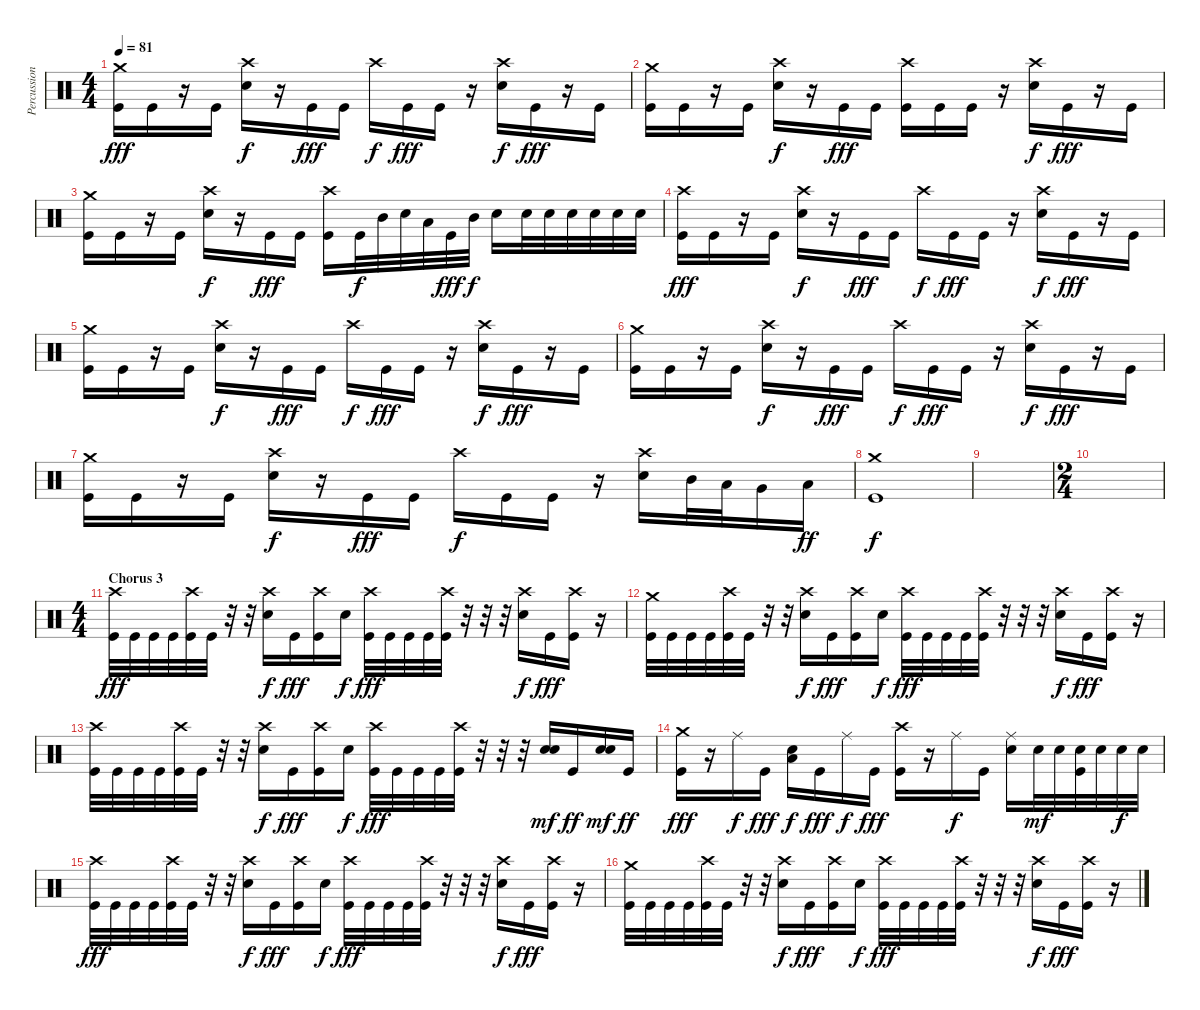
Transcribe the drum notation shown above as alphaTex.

\track ("Percussion" "Percussion") {instrument percussion}
\staff {score}
\articulation defaults
\ts (4 4)
\tempo 81
\clef neutral
\ks c
("Crash medium (hit)" "Kick (hit)").16{dy fff} "Kick (hit)".16 r.16 "Kick (hit)".16 ("Crash high (hit)" "Electric Snare (hit)").16{dy f} r.16 "Kick (hit)".16{dy fff} "Kick (hit)".16 "Crash high (hit)".16{dy f} "Kick (hit)".16{dy fff} "Kick (hit)".16 r.16 ("Crash high (hit)" "Electric Snare (hit)").16{dy f} "Kick (hit)".16{dy fff} r.16 "Kick (hit)".16 |
("Crash medium (hit)" "Kick (hit)").16 "Kick (hit)".16 r.16 "Kick (hit)".16 ("Crash high (hit)" "Electric Snare (hit)").16{dy f} r.16 "Kick (hit)".16{dy fff} "Kick (hit)".16 ("Crash high (hit)" "Kick (hit)").16 "Kick (hit)".16 "Kick (hit)".16 r.16 ("Crash high (hit)" "Electric Snare (hit)").16{dy f} "Kick (hit)".16{dy fff} r.16 "Kick (hit)".16 |
("Crash medium (hit)" "Kick (hit)").16 "Kick (hit)".16 r.16 "Kick (hit)".16 ("Crash high (hit)" "Electric Snare (hit)").16{dy f} r.16 "Kick (hit)".16{dy fff} "Kick (hit)".16 ("Crash high (hit)" "Kick (hit)").16 "Kick (hit)".32{dy f} "Mid Tom (hit)".32 "Electric Snare (hit)".32 "Low Tom (hit)".32 "Kick (hit)".32{dy fff} "Mid Tom (hit)".32{dy f} "Electric Snare (hit)".16 "Electric Snare (hit)".32 "Electric Snare (hit)".32 "Electric Snare (hit)".32 "Electric Snare (hit)".32 "Electric Snare (hit)".32 "Electric Snare (hit)".32 |
("Crash high (hit)" "Kick (hit)").16{dy fff} "Kick (hit)".16 r.16 "Kick (hit)".16 ("Crash high (hit)" "Electric Snare (hit)").16{dy f} r.16 "Kick (hit)".16{dy fff} "Kick (hit)".16 "Crash high (hit)".16{dy f} "Kick (hit)".16{dy fff} "Kick (hit)".16 r.16 ("Crash high (hit)" "Electric Snare (hit)").16{dy f} "Kick (hit)".16{dy fff} r.16 "Kick (hit)".16 |
("Crash medium (hit)" "Kick (hit)").16 "Kick (hit)".16 r.16 "Kick (hit)".16 ("Crash high (hit)" "Electric Snare (hit)").16{dy f} r.16 "Kick (hit)".16{dy fff} "Kick (hit)".16 "Crash high (hit)".16{dy f} "Kick (hit)".16{dy fff} "Kick (hit)".16 r.16 ("Crash high (hit)" "Electric Snare (hit)").16{dy f} "Kick (hit)".16{dy fff} r.16 "Kick (hit)".16 |
("Crash medium (hit)" "Kick (hit)").16 "Kick (hit)".16 r.16 "Kick (hit)".16 ("Crash high (hit)" "Electric Snare (hit)").16{dy f} r.16 "Kick (hit)".16{dy fff} "Kick (hit)".16 "Crash high (hit)".16{dy f} "Kick (hit)".16{dy fff} "Kick (hit)".16 r.16 ("Crash high (hit)" "Electric Snare (hit)").16{dy f} "Kick (hit)".16{dy fff} r.16 "Kick (hit)".16 |
("Crash medium (hit)" "Kick (hit)").16 "Kick (hit)".16 r.16 "Kick (hit)".16 ("Crash high (hit)" "Electric Snare (hit)").16{dy f} r.16 "Kick (hit)".16{dy fff} "Kick (hit)".16 "Crash high (hit)".16{dy f} "Kick (hit)".16 "Kick (hit)".16 r.16 ("Crash high (hit)" "Electric Snare (hit)").16 "Mid Tom (hit)".32 "Low Tom (hit)".32 "Very Low Tom (hit)".16 "Low Floor Tom (hit)".16{dy ff} |
("Crash medium (hit)" "Kick (hit)").1{dy f} |
|
\ts (2 4)
|
\ts (4 4)
\section ("" "Chorus 3")
("Crash high (hit)" "Kick (hit)").32{dy fff} "Kick (hit)".32 "Kick (hit)".32 "Kick (hit)".32 ("Crash high (hit)" "Kick (hit)").32 "Kick (hit)".32 r.32 r.32 ("Crash high (hit)" "Electric Snare (hit)").16{dy f} "Kick (hit)".16{dy fff} ("Crash high (hit)" "Kick (hit)").16 "Electric Snare (hit)".16{dy f} ("Crash high (hit)" "Kick (hit)").32{dy fff} "Kick (hit)".32 "Kick (hit)".32 "Kick (hit)".32 ("Crash high (hit)" "Kick (hit)").32 r.32 r.32 r.32 ("Crash high (hit)" "Electric Snare (hit)").16{dy f} "Kick (hit)".16{dy fff} ("Crash high (hit)" "Kick (hit)").16 r.16 |
("Crash medium (hit)" "Kick (hit)").32 "Kick (hit)".32 "Kick (hit)".32 "Kick (hit)".32 ("Crash high (hit)" "Kick (hit)").32 "Kick (hit)".32 r.32 r.32 ("Crash high (hit)" "Electric Snare (hit)").16{dy f} "Kick (hit)".16{dy fff} ("Crash high (hit)" "Kick (hit)").16 "Electric Snare (hit)".16{dy f} ("Crash high (hit)" "Kick (hit)").32{dy fff} "Kick (hit)".32 "Kick (hit)".32 "Kick (hit)".32 ("Crash high (hit)" "Kick (hit)").32 r.32 r.32 r.32 ("Crash high (hit)" "Electric Snare (hit)").16{dy f} "Kick (hit)".16{dy fff} ("Crash high (hit)" "Kick (hit)").16 r.16 |
("Crash high (hit)" "Kick (hit)").32 "Kick (hit)".32 "Kick (hit)".32 "Kick (hit)".32 ("Crash high (hit)" "Kick (hit)").32 "Kick (hit)".32 r.32 r.32 ("Crash high (hit)" "Electric Snare (hit)").16{dy f} "Kick (hit)".16{dy fff} ("Crash high (hit)" "Kick (hit)").16 "Electric Snare (hit)".16{dy f} ("Crash high (hit)" "Kick (hit)").32{dy fff} "Kick (hit)".32 "Kick (hit)".32 "Kick (hit)".32 ("Crash high (hit)" "Kick (hit)").32 r.32 r.32 r.32 ("Electric Snare (hit)" "Electric Snare (hit)").16{dy mf} "Kick (hit)".16{dy ff} ("Electric Snare (hit)" "Electric Snare (hit)").16{dy mf} "Kick (hit)".16{dy ff} |
("Crash medium (hit)" "Kick (hit)").16{dy fff} r.16 "Ride (middle)".16{dy f} "Kick (hit)".16{dy fff} ("Electric Snare (hit)" "Low Floor Tom (hit)").16{dy f} "Kick (hit)".16{dy fff} "Ride (middle)".16{dy f} "Kick (hit)".16{dy fff} ("Crash high (hit)" "Kick (hit)").16 r.16 "Ride (middle)".16{dy f} "Kick (hit)".16 ("Ride (middle)" "Electric Snare (hit)").16 "Electric Snare (hit)".32{dy mf} "Electric Snare (hit)".32 ("Electric Snare (hit)" "Kick (hit)").32 "Electric Snare (hit)".32 "Electric Snare (hit)".32{dy f} "Electric Snare (hit)".32 |
("Crash high (hit)" "Kick (hit)").32{dy fff} "Kick (hit)".32 "Kick (hit)".32 "Kick (hit)".32 ("Crash high (hit)" "Kick (hit)").32 "Kick (hit)".32 r.32 r.32 ("Crash high (hit)" "Electric Snare (hit)").16{dy f} "Kick (hit)".16{dy fff} ("Crash high (hit)" "Kick (hit)").16 "Electric Snare (hit)".16{dy f} ("Crash high (hit)" "Kick (hit)").32{dy fff} "Kick (hit)".32 "Kick (hit)".32 "Kick (hit)".32 ("Crash high (hit)" "Kick (hit)").32 r.32 r.32 r.32 ("Crash high (hit)" "Electric Snare (hit)").16{dy f} "Kick (hit)".16{dy fff} ("Crash high (hit)" "Kick (hit)").16 r.16 |
("Crash medium (hit)" "Kick (hit)").32 "Kick (hit)".32 "Kick (hit)".32 "Kick (hit)".32 ("Crash high (hit)" "Kick (hit)").32 "Kick (hit)".32 r.32 r.32 ("Crash high (hit)" "Electric Snare (hit)").16{dy f} "Kick (hit)".16{dy fff} ("Crash high (hit)" "Kick (hit)").16 "Electric Snare (hit)".16{dy f} ("Crash high (hit)" "Kick (hit)").32{dy fff} "Kick (hit)".32 "Kick (hit)".32 "Kick (hit)".32 ("Crash high (hit)" "Kick (hit)").32 r.32 r.32 r.32 ("Crash high (hit)" "Electric Snare (hit)").16{dy f} "Kick (hit)".16{dy fff} ("Crash high (hit)" "Kick (hit)").16 r.16
